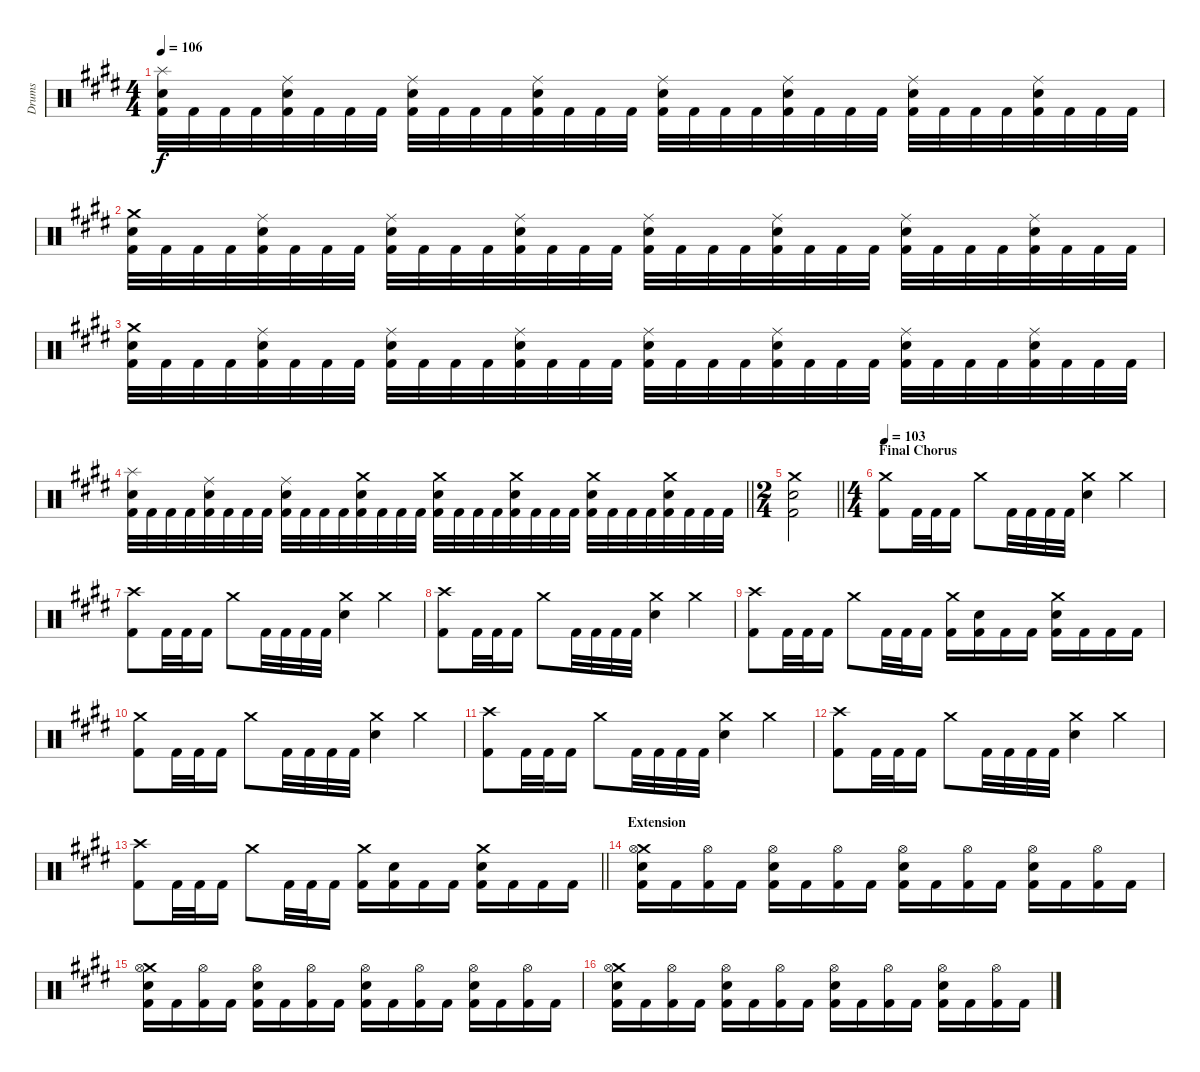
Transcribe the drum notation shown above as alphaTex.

\track ("Drums" "Drums") {instrument percussion}
\staff {score}
\articulation defaults
\ts (4 4)
\tempo 106
\clef neutral
\ks c#minor
("Splash (hit)" "Snare (hit) 2" "Kick (hit) 2").32{dy f} "Kick (hit) 2".32 "Kick (hit) 2".32 "Kick (hit) 2".32 ("Ride (middle)" "Snare (hit) 2" "Kick (hit) 2").32 "Kick (hit) 2".32 "Kick (hit) 2".32 "Kick (hit) 2".32 ("Ride (middle)" "Snare (hit) 2" "Kick (hit) 2").32 "Kick (hit) 2".32 "Kick (hit) 2".32 "Kick (hit) 2".32 ("Ride (middle)" "Snare (hit) 2" "Kick (hit) 2").32 "Kick (hit) 2".32 "Kick (hit) 2".32 "Kick (hit) 2".32 ("Ride (middle)" "Snare (hit) 2" "Kick (hit) 2").32 "Kick (hit) 2".32 "Kick (hit) 2".32 "Kick (hit) 2".32 ("Ride (middle)" "Snare (hit) 2" "Kick (hit) 2").32 "Kick (hit) 2".32 "Kick (hit) 2".32 "Kick (hit) 2".32 ("Ride (middle)" "Snare (hit) 2" "Kick (hit) 2").32 "Kick (hit) 2".32 "Kick (hit) 2".32 "Kick (hit) 2".32 ("Ride (middle)" "Snare (hit) 2" "Kick (hit) 2").32 "Kick (hit) 2".32 "Kick (hit) 2".32 "Kick (hit) 2".32 |
("Crash medium (hit)" "Snare (hit) 2" "Kick (hit) 2").32 "Kick (hit) 2".32 "Kick (hit) 2".32 "Kick (hit) 2".32 ("Ride (middle)" "Snare (hit) 2" "Kick (hit) 2").32 "Kick (hit) 2".32 "Kick (hit) 2".32 "Kick (hit) 2".32 ("Ride (middle)" "Snare (hit) 2" "Kick (hit) 2").32 "Kick (hit) 2".32 "Kick (hit) 2".32 "Kick (hit) 2".32 ("Ride (middle)" "Snare (hit) 2" "Kick (hit) 2").32 "Kick (hit) 2".32 "Kick (hit) 2".32 "Kick (hit) 2".32 ("Ride (middle)" "Snare (hit) 2" "Kick (hit) 2").32 "Kick (hit) 2".32 "Kick (hit) 2".32 "Kick (hit) 2".32 ("Ride (middle)" "Snare (hit) 2" "Kick (hit) 2").32 "Kick (hit) 2".32 "Kick (hit) 2".32 "Kick (hit) 2".32 ("Ride (middle)" "Snare (hit) 2" "Kick (hit) 2").32 "Kick (hit) 2".32 "Kick (hit) 2".32 "Kick (hit) 2".32 ("Ride (middle)" "Snare (hit) 2" "Kick (hit) 2").32 "Kick (hit) 2".32 "Kick (hit) 2".32 "Kick (hit) 2".32 |
("Crash medium (hit)" "Snare (hit) 2" "Kick (hit) 2").32 "Kick (hit) 2".32 "Kick (hit) 2".32 "Kick (hit) 2".32 ("Ride (middle)" "Snare (hit) 2" "Kick (hit) 2").32 "Kick (hit) 2".32 "Kick (hit) 2".32 "Kick (hit) 2".32 ("Ride (middle)" "Snare (hit) 2" "Kick (hit) 2").32 "Kick (hit) 2".32 "Kick (hit) 2".32 "Kick (hit) 2".32 ("Ride (middle)" "Snare (hit) 2" "Kick (hit) 2").32 "Kick (hit) 2".32 "Kick (hit) 2".32 "Kick (hit) 2".32 ("Ride (middle)" "Snare (hit) 2" "Kick (hit) 2").32 "Kick (hit) 2".32 "Kick (hit) 2".32 "Kick (hit) 2".32 ("Ride (middle)" "Snare (hit) 2" "Kick (hit) 2").32 "Kick (hit) 2".32 "Kick (hit) 2".32 "Kick (hit) 2".32 ("Ride (middle)" "Snare (hit) 2" "Kick (hit) 2").32 "Kick (hit) 2".32 "Kick (hit) 2".32 "Kick (hit) 2".32 ("Ride (middle)" "Snare (hit) 2" "Kick (hit) 2").32 "Kick (hit) 2".32 "Kick (hit) 2".32 "Kick (hit) 2".32 |
\barLineRight lightlight
("Splash (hit)" "Snare (hit) 2" "Kick (hit) 2").32 "Kick (hit) 2".32 "Kick (hit) 2".32 "Kick (hit) 2".32 ("Ride (middle)" "Snare (hit) 2" "Kick (hit) 2").32 "Kick (hit) 2".32 "Kick (hit) 2".32 "Kick (hit) 2".32 ("Ride (middle)" "Snare (hit) 2" "Kick (hit) 2").32 "Kick (hit) 2".32 "Kick (hit) 2".32 "Kick (hit) 2".32 ("Crash medium (hit)" "Snare (hit) 2" "Kick (hit) 2").32 "Kick (hit) 2".32 "Kick (hit) 2".32 "Kick (hit) 2".32 ("Crash medium (hit)" "Snare (hit) 2" "Kick (hit) 2").32 "Kick (hit) 2".32 "Kick (hit) 2".32 "Kick (hit) 2".32 ("Crash medium (hit)" "Snare (hit) 2" "Kick (hit) 2").32 "Kick (hit) 2".32 "Kick (hit) 2".32 "Kick (hit) 2".32 ("Crash medium (hit)" "Snare (hit) 2" "Kick (hit) 2").32 "Kick (hit) 2".32 "Kick (hit) 2".32 "Kick (hit) 2".32 ("Crash medium (hit)" "Snare (hit) 2" "Kick (hit) 2").32 "Kick (hit) 2".32 "Kick (hit) 2".32 "Kick (hit) 2".32 |
\ts (2 4)
\barLineRight lightlight
("Crash medium (hit)" "Snare (hit) 2" "Kick (hit) 2").2 |
\ts (4 4)
\section ("" "Final Chorus")
\tempo 103
("Crash medium (hit)" "Kick (hit) 2").8{volume 8} "Kick (hit) 2".32 "Kick (hit) 2".32 "Kick (hit) 2".16 "Crash medium (hit)".8 "Kick (hit) 2".32 "Kick (hit) 2".32 "Kick (hit) 2".32 "Kick (hit) 2".32 ("Crash medium (hit)" "Snare (hit) 2").4 "Crash medium (hit)".4 |
("Crash high (hit)" "Kick (hit) 2").8 "Kick (hit) 2".32 "Kick (hit) 2".32 "Kick (hit) 2".16 "Crash medium (hit)".8 "Kick (hit) 2".32 "Kick (hit) 2".32 "Kick (hit) 2".32 "Kick (hit) 2".32 ("Crash medium (hit)" "Snare (hit) 2").4 "Crash medium (hit)".4 |
("Crash high (hit)" "Kick (hit) 2").8 "Kick (hit) 2".32 "Kick (hit) 2".32 "Kick (hit) 2".16 "Crash medium (hit)".8 "Kick (hit) 2".32 "Kick (hit) 2".32 "Kick (hit) 2".32 "Kick (hit) 2".32 ("Crash medium (hit)" "Snare (hit) 2").4 "Crash medium (hit)".4 |
("Crash high (hit)" "Kick (hit) 2").8 "Kick (hit) 2".32 "Kick (hit) 2".32 "Kick (hit) 2".16 "Crash medium (hit)".8 "Kick (hit) 2".32 "Kick (hit) 2".32 "Kick (hit) 2".16 ("Crash medium (hit)" "Kick (hit) 2").16 ("Snare (hit) 2" "Kick (hit) 2").16 "Kick (hit) 2".16 "Kick (hit) 2".16 ("Crash medium (hit)" "Snare (hit) 2" "Kick (hit) 2").16 "Kick (hit) 2".16 "Kick (hit) 2".16 "Kick (hit) 2".16 |
("Crash medium (hit)" "Kick (hit) 2").8{volume 13} "Kick (hit) 2".32 "Kick (hit) 2".32 "Kick (hit) 2".16 "Crash medium (hit)".8 "Kick (hit) 2".32 "Kick (hit) 2".32 "Kick (hit) 2".32 "Kick (hit) 2".32 ("Crash medium (hit)" "Snare (hit) 2").4 "Crash medium (hit)".4 |
("Crash high (hit)" "Kick (hit) 2").8 "Kick (hit) 2".32 "Kick (hit) 2".32 "Kick (hit) 2".16 "Crash medium (hit)".8 "Kick (hit) 2".32 "Kick (hit) 2".32 "Kick (hit) 2".32 "Kick (hit) 2".32 ("Crash medium (hit)" "Snare (hit) 2").4 "Crash medium (hit)".4 |
("Crash high (hit)" "Kick (hit) 2").8 "Kick (hit) 2".32 "Kick (hit) 2".32 "Kick (hit) 2".16 "Crash medium (hit)".8 "Kick (hit) 2".32 "Kick (hit) 2".32 "Kick (hit) 2".32 "Kick (hit) 2".32 ("Crash medium (hit)" "Snare (hit) 2").4 "Crash medium (hit)".4 |
\barLineRight lightlight
("Crash high (hit)" "Kick (hit) 2").8 "Kick (hit) 2".32 "Kick (hit) 2".32 "Kick (hit) 2".16 "Crash medium (hit)".8 "Kick (hit) 2".32 "Kick (hit) 2".32 "Kick (hit) 2".16 ("Crash medium (hit)" "Kick (hit) 2").16 ("Snare (hit) 2" "Kick (hit) 2").16 "Kick (hit) 2".16 "Kick (hit) 2".16 ("Crash medium (hit)" "Snare (hit) 2" "Kick (hit) 2").16 "Kick (hit) 2".16 "Kick (hit) 2".16 "Kick (hit) 2".16 |
\section ("" "Extension")
("Crash medium (hit)" "Snare (hit) 2" "Hi-Hat (open)" "Kick (hit) 2").16 "Kick (hit) 2".16 ("Hi-Hat (open)" "Kick (hit) 2").16 "Kick (hit) 2".16 ("Snare (hit) 2" "Hi-Hat (open)" "Kick (hit) 2").16 "Kick (hit) 2".16 ("Hi-Hat (open)" "Kick (hit) 2").16 "Kick (hit) 2".16 ("Snare (hit) 2" "Hi-Hat (open)" "Kick (hit) 2").16 "Kick (hit) 2".16 ("Hi-Hat (open)" "Kick (hit) 2").16 "Kick (hit) 2".16 ("Snare (hit) 2" "Hi-Hat (open)" "Kick (hit) 2").16 "Kick (hit) 2".16 ("Hi-Hat (open)" "Kick (hit) 2").16 "Kick (hit) 2".16 |
("Crash medium (hit)" "Snare (hit) 2" "Hi-Hat (open)" "Kick (hit) 2").16 "Kick (hit) 2".16 ("Hi-Hat (open)" "Kick (hit) 2").16 "Kick (hit) 2".16 ("Snare (hit) 2" "Hi-Hat (open)" "Kick (hit) 2").16 "Kick (hit) 2".16 ("Hi-Hat (open)" "Kick (hit) 2").16 "Kick (hit) 2".16 ("Snare (hit) 2" "Hi-Hat (open)" "Kick (hit) 2").16 "Kick (hit) 2".16 ("Hi-Hat (open)" "Kick (hit) 2").16 "Kick (hit) 2".16 ("Snare (hit) 2" "Hi-Hat (open)" "Kick (hit) 2").16 "Kick (hit) 2".16 ("Hi-Hat (open)" "Kick (hit) 2").16 "Kick (hit) 2".16 |
("Crash medium (hit)" "Snare (hit) 2" "Hi-Hat (open)" "Kick (hit) 2").16 "Kick (hit) 2".16 ("Hi-Hat (open)" "Kick (hit) 2").16 "Kick (hit) 2".16 ("Snare (hit) 2" "Hi-Hat (open)" "Kick (hit) 2").16 "Kick (hit) 2".16 ("Hi-Hat (open)" "Kick (hit) 2").16 "Kick (hit) 2".16 ("Snare (hit) 2" "Hi-Hat (open)" "Kick (hit) 2").16 "Kick (hit) 2".16 ("Hi-Hat (open)" "Kick (hit) 2").16 "Kick (hit) 2".16 ("Snare (hit) 2" "Hi-Hat (open)" "Kick (hit) 2").16 "Kick (hit) 2".16 ("Hi-Hat (open)" "Kick (hit) 2").16 "Kick (hit) 2".16
